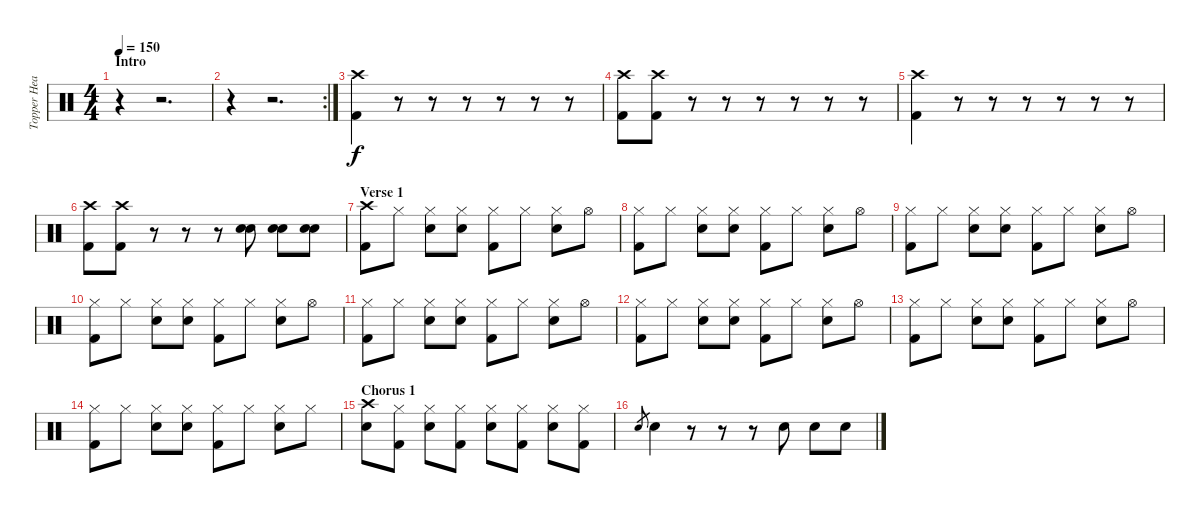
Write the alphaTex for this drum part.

\track ("Topper Headon - Drums" "Topper Hea") {instrument percussion}
\staff {score}
\articulation defaults
\ts (4 4)
\section ("" "Intro")
\tempo 150
\clef neutral
\ks c
r.4{dy f} r.2{d} |
\rc 2
r.4 r.2{d} |
("Crash high (hit)" "Kick (hit) 2").4 r.8 r.8 r.8 r.8 r.8 r.8 |
("Crash high (hit)" "Kick (hit) 2").8 ("Crash high (hit)" "Kick (hit) 2").8 r.8 r.8 r.8 r.8 r.8 r.8 |
("Crash high (hit)" "Kick (hit) 2").4 r.8 r.8 r.8 r.8 r.8 r.8 |
("Crash high (hit)" "Kick (hit) 2").8 ("Crash high (hit)" "Kick (hit) 2").8 r.8 r.8 r.8 ("Electric Snare (hit)" "Electric Snare (hit)").8 ("Electric Snare (hit)" "Electric Snare (hit)").8 ("Electric Snare (hit)" "Electric Snare (hit)").8 |
\section ("" "Verse 1")
("Crash high (hit)" "Kick (hit) 2").8 "Hi-Hat (closed)".8 ("Hi-Hat (closed)" "Electric Snare (hit)").8 ("Hi-Hat (closed)" "Electric Snare (hit)").8 ("Hi-Hat (closed)" "Kick (hit) 2").8 "Hi-Hat (closed)".8 ("Hi-Hat (closed)" "Electric Snare (hit)").8 "Hi-Hat (open)".8 |
("Hi-Hat (closed)" "Kick (hit) 2").8 "Hi-Hat (closed)".8 ("Hi-Hat (closed)" "Electric Snare (hit)").8 ("Hi-Hat (closed)" "Electric Snare (hit)").8 ("Hi-Hat (closed)" "Kick (hit) 2").8 "Hi-Hat (closed)".8 ("Hi-Hat (closed)" "Electric Snare (hit)").8 "Hi-Hat (open)".8 |
("Hi-Hat (closed)" "Kick (hit) 2").8 "Hi-Hat (closed)".8 ("Hi-Hat (closed)" "Electric Snare (hit)").8 ("Hi-Hat (closed)" "Electric Snare (hit)").8 ("Hi-Hat (closed)" "Kick (hit) 2").8 "Hi-Hat (closed)".8 ("Hi-Hat (closed)" "Electric Snare (hit)").8 "Hi-Hat (open)".8 |
("Hi-Hat (closed)" "Kick (hit) 2").8 "Hi-Hat (closed)".8 ("Hi-Hat (closed)" "Electric Snare (hit)").8 ("Hi-Hat (closed)" "Electric Snare (hit)").8 ("Hi-Hat (closed)" "Kick (hit) 2").8 "Hi-Hat (closed)".8 ("Hi-Hat (closed)" "Electric Snare (hit)").8 "Hi-Hat (open)".8 |
("Hi-Hat (closed)" "Kick (hit) 2").8 "Hi-Hat (closed)".8 ("Hi-Hat (closed)" "Electric Snare (hit)").8 ("Hi-Hat (closed)" "Electric Snare (hit)").8 ("Hi-Hat (closed)" "Kick (hit) 2").8 "Hi-Hat (closed)".8 ("Hi-Hat (closed)" "Electric Snare (hit)").8 "Hi-Hat (open)".8 |
("Hi-Hat (closed)" "Kick (hit) 2").8 "Hi-Hat (closed)".8 ("Hi-Hat (closed)" "Electric Snare (hit)").8 ("Hi-Hat (closed)" "Electric Snare (hit)").8 ("Hi-Hat (closed)" "Kick (hit) 2").8 "Hi-Hat (closed)".8 ("Hi-Hat (closed)" "Electric Snare (hit)").8 "Hi-Hat (open)".8 |
("Hi-Hat (closed)" "Kick (hit) 2").8 "Hi-Hat (closed)".8 ("Hi-Hat (closed)" "Electric Snare (hit)").8 ("Hi-Hat (closed)" "Electric Snare (hit)").8 ("Hi-Hat (closed)" "Kick (hit) 2").8 "Hi-Hat (closed)".8 ("Hi-Hat (closed)" "Electric Snare (hit)").8 "Hi-Hat (open)".8 |
("Hi-Hat (closed)" "Kick (hit) 2").8 "Hi-Hat (closed)".8 ("Hi-Hat (closed)" "Electric Snare (hit)").8 ("Hi-Hat (closed)" "Electric Snare (hit)").8 ("Hi-Hat (closed)" "Kick (hit) 2").8 "Hi-Hat (closed)".8 ("Hi-Hat (closed)" "Electric Snare (hit)").8 "Hi-Hat (closed)".8 |
\section ("" "Chorus 1")
("Crash high (hit)" "Electric Snare (hit)").8 ("Hi-Hat (closed)" "Kick (hit) 2").8 ("Hi-Hat (closed)" "Electric Snare (hit)").8 ("Hi-Hat (closed)" "Kick (hit) 2").8 ("Hi-Hat (closed)" "Electric Snare (hit)").8 ("Hi-Hat (closed)" "Kick (hit) 2").8 ("Hi-Hat (closed)" "Electric Snare (hit)").8 ("Hi-Hat (closed)" "Kick (hit) 2").8 |
"Electric Snare (hit)".8{gr} "Electric Snare (hit)".4 r.8 r.8 r.8 "Electric Snare (hit)".8 "Electric Snare (hit)".8 "Electric Snare (hit)".8
